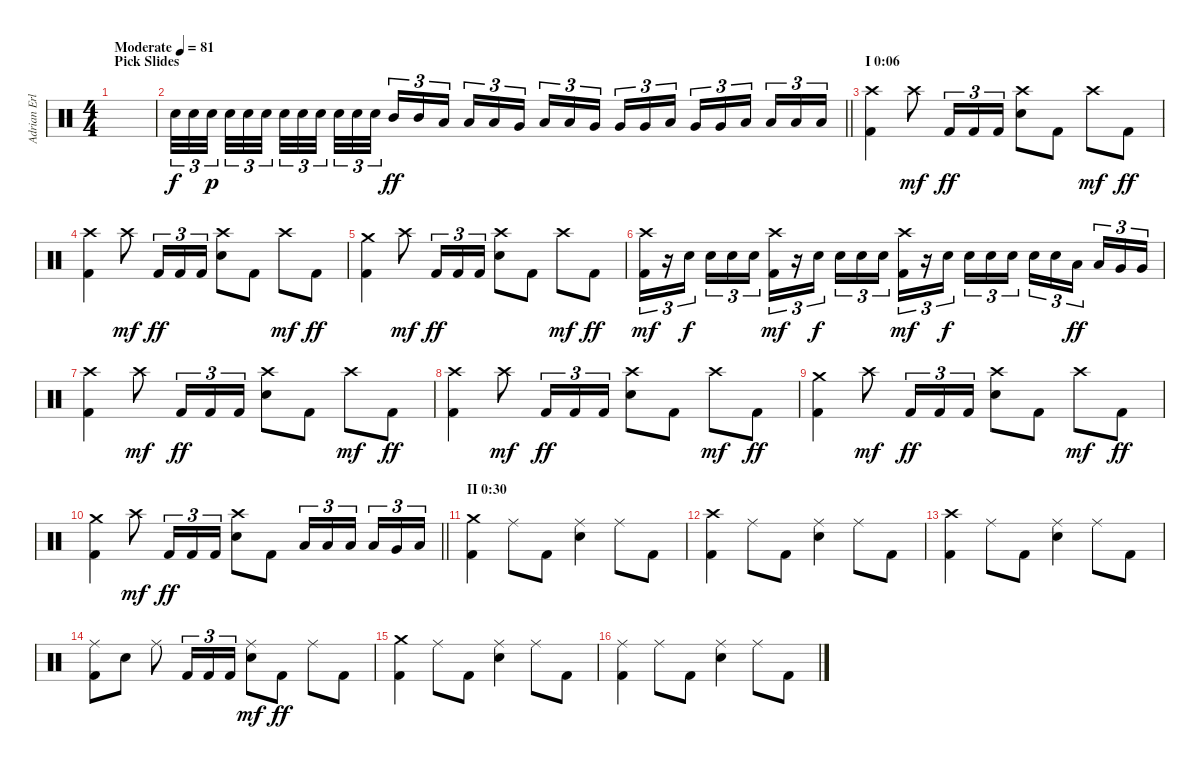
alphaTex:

\track ("Adrian Erlandsson (drums)" "Adrian Erl") {instrument percussion}
\staff {score}
\articulation defaults
\ts (4 4)
\section ("" "Pick Slides")
\tempo (81 "Moderate")
\clef neutral
\ks c
|
\barLineRight lightlight "Electric Snare (hit)".32{tu (3 2)} "Electric Snare (hit)".32{tu (3 2)} "Electric Snare (hit)".32{tu (3 2) dy p beam splitsecondary} "Electric Snare (hit)".32{tu (3 2)} "Electric Snare (hit)".32{tu (3 2)} "Electric Snare (hit)".32{tu (3 2) beam splitsecondary} "Electric Snare (hit)".32{tu (3 2)} "Electric Snare (hit)".32{tu (3 2)} "Electric Snare (hit)".32{tu (3 2) beam splitsecondary} "Electric Snare (hit)".32{tu (3 2)} "Electric Snare (hit)".32{tu (3 2)} "Electric Snare (hit)".32{tu (3 2)} "Mid Tom (hit)".16{tu (3 2) dy ff} "Mid Tom (hit)".16{tu (3 2)} "Low Tom (hit)".16{tu (3 2) beam splitsecondary} "Low Tom (hit)".16{tu (3 2)} "Low Tom (hit)".16{tu (3 2)} "Very Low Tom (hit)".16{tu (3 2)} "Low Tom (hit)".16{tu (3 2)} "Low Tom (hit)".16{tu (3 2)} "Very Low Tom (hit)".16{tu (3 2) beam splitsecondary} "Very Low Tom (hit)".16{tu (3 2)} "Very Low Tom (hit)".16{tu (3 2)} "Low Floor Tom (hit)".16{tu (3 2)} "Very Low Tom (hit)".16{tu (3 2)} "Very Low Tom (hit)".16{tu (3 2)} "Low Floor Tom (hit)".16{tu (3 2) beam splitsecondary} "Low Floor Tom (hit)".16{tu (3 2)} "Low Floor Tom (hit)".16{tu (3 2)} "Low Floor Tom (hit)".16{tu (3 2)}
|
\section ("" "I 0:06")
("Crash high (hit)" "Kick (hit) 2").4 "Crash high (hit)".8{dy mf} "Kick (hit) 2".16{tu (3 2) dy ff} "Kick (hit) 2".16{tu (3 2)} "Kick (hit) 2".16{tu (3 2)} ("Crash high (hit)" "Electric Snare (hit)").8 "Kick (hit) 2".8 "Crash high (hit)".8{dy mf} "Kick (hit) 2".8{dy ff} |
("Crash high (hit)" "Kick (hit) 2").4 "Crash high (hit)".8{dy mf} "Kick (hit) 2".16{tu (3 2) dy ff} "Kick (hit) 2".16{tu (3 2)} "Kick (hit) 2".16{tu (3 2)} ("Crash high (hit)" "Electric Snare (hit)").8 "Kick (hit) 2".8 "Crash high (hit)".8{dy mf} "Kick (hit) 2".8{dy ff} |
("Crash medium (hit)" "Kick (hit) 2").4 "Crash high (hit)".8{dy mf} "Kick (hit) 2".16{tu (3 2) dy ff} "Kick (hit) 2".16{tu (3 2)} "Kick (hit) 2".16{tu (3 2)} ("Crash high (hit)" "Electric Snare (hit)").8 "Kick (hit) 2".8 "Crash high (hit)".8{dy mf} "Kick (hit) 2".8{dy ff} |
("Crash high (hit)" "Kick (hit) 2").16{tu (3 2) dy mf} r.16{tu (3 2)} "Electric Snare (hit)".16{tu (3 2) dy f beam splitsecondary} "Electric Snare (hit)".16{tu (3 2)} "Electric Snare (hit)".16{tu (3 2)} "Electric Snare (hit)".16{tu (3 2)} ("Crash high (hit)" "Kick (hit) 2").16{tu (3 2) dy mf} r.16{tu (3 2)} "Electric Snare (hit)".16{tu (3 2) dy f beam splitsecondary} "Electric Snare (hit)".16{tu (3 2)} "Electric Snare (hit)".16{tu (3 2)} "Electric Snare (hit)".16{tu (3 2)} ("Crash high (hit)" "Kick (hit) 2").16{tu (3 2) dy mf} r.16{tu (3 2)} "Electric Snare (hit)".16{tu (3 2) dy f beam splitsecondary} "Electric Snare (hit)".16{tu (3 2)} "Electric Snare (hit)".16{tu (3 2)} "Electric Snare (hit)".16{tu (3 2)} "Electric Snare (hit)".16{tu (3 2)} "Electric Snare (hit)".16{tu (3 2)} "Low Tom (hit)".16{tu (3 2) dy ff beam splitsecondary} "Low Tom (hit)".16{tu (3 2)} "Very Low Tom (hit)".16{tu (3 2)} "Very Low Tom (hit)".16{tu (3 2)} |
("Crash high (hit)" "Kick (hit) 2").4 "Crash high (hit)".8{dy mf} "Kick (hit) 2".16{tu (3 2) dy ff} "Kick (hit) 2".16{tu (3 2)} "Kick (hit) 2".16{tu (3 2)} ("Crash high (hit)" "Electric Snare (hit)").8 "Kick (hit) 2".8 "Crash high (hit)".8{dy mf} "Kick (hit) 2".8{dy ff} |
("Crash high (hit)" "Kick (hit) 2").4 "Crash high (hit)".8{dy mf} "Kick (hit) 2".16{tu (3 2) dy ff} "Kick (hit) 2".16{tu (3 2)} "Kick (hit) 2".16{tu (3 2)} ("Crash high (hit)" "Electric Snare (hit)").8 "Kick (hit) 2".8 "Crash high (hit)".8{dy mf} "Kick (hit) 2".8{dy ff} |
("Crash medium (hit)" "Kick (hit) 2").4 "Crash high (hit)".8{dy mf} "Kick (hit) 2".16{tu (3 2) dy ff} "Kick (hit) 2".16{tu (3 2)} "Kick (hit) 2".16{tu (3 2)} ("Crash high (hit)" "Electric Snare (hit)").8 "Kick (hit) 2".8 "Crash high (hit)".8{dy mf} "Kick (hit) 2".8{dy ff} |
\barLineRight lightlight
("Crash medium (hit)" "Kick (hit) 2").4 "Crash high (hit)".8{dy mf} "Kick (hit) 2".16{tu (3 2) dy ff} "Kick (hit) 2".16{tu (3 2)} "Kick (hit) 2".16{tu (3 2)} ("Crash high (hit)" "Electric Snare (hit)").8 "Kick (hit) 2".8 "Low Tom (hit)".16{tu (3 2)} "Low Tom (hit)".16{tu (3 2)} "Low Tom (hit)".16{tu (3 2) beam splitsecondary} "Low Tom (hit)".16{tu (3 2)} "Very Low Tom (hit)".16{tu (3 2)} "Low Floor Tom (hit)".16{tu (3 2)} |
\section ("" "II 0:30")
("Crash medium (hit)" "Kick (hit) 2").4 "Ride (middle)".8 "Kick (hit) 2".8 ("Ride (middle)" "Electric Snare (hit)").4 "Ride (middle)".8 "Kick (hit) 2".8 |
("Crash high (hit)" "Kick (hit) 2").4 "Ride (middle)".8 "Kick (hit) 2".8 ("Ride (middle)" "Electric Snare (hit)").4 "Ride (middle)".8 "Kick (hit) 2".8 |
("Crash high (hit)" "Kick (hit) 2").4 "Ride (middle)".8 "Kick (hit) 2".8 ("Ride (middle)" "Electric Snare (hit)").4 "Ride (middle)".8 "Kick (hit) 2".8 |
("Ride (middle)" "Kick (hit) 2").8 "Electric Snare (hit)".8 "Ride (middle)".8 "Kick (hit) 2".16{tu (3 2)} "Kick (hit) 2".16{tu (3 2)} "Kick (hit) 2".16{tu (3 2)} ("Ride (middle)" "Electric Snare (hit)").8{dy mf} "Kick (hit) 2".8{dy ff} "Ride (middle)".8 "Kick (hit) 2".8 |
("Crash medium (hit)" "Kick (hit) 2").4 "Ride (middle)".8 "Kick (hit) 2".8 ("Ride (middle)" "Electric Snare (hit)").4 "Ride (middle)".8 "Kick (hit) 2".8 |
("Ride (middle)" "Kick (hit) 2").4 "Ride (middle)".8 "Kick (hit) 2".8 ("Ride (middle)" "Electric Snare (hit)").4 "Ride (middle)".8 "Kick (hit) 2".8
